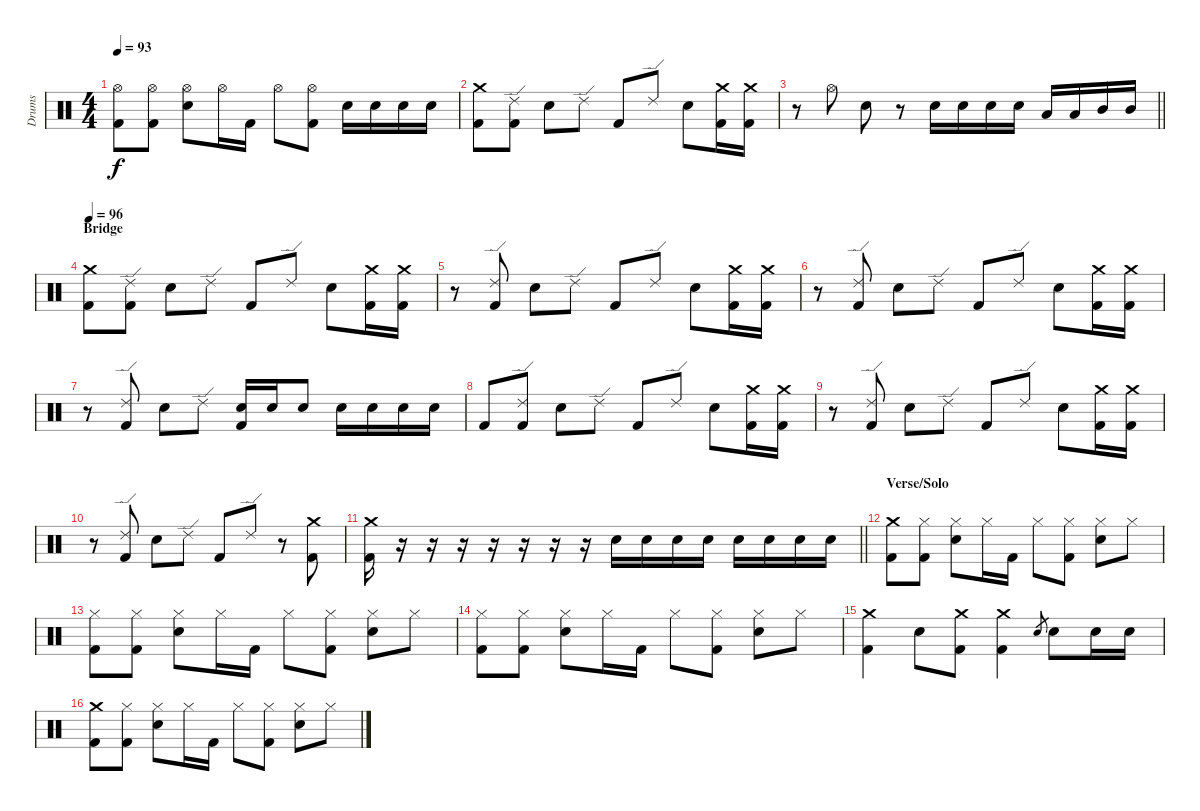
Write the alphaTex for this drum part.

\track ("Drums" "Drums") {instrument percussion}
\staff {score}
\articulation defaults
\ts (4 4)
\tempo 93
\clef neutral
\ks c
("Hi-Hat (open)" "Kick (hit) 2").8{dy f} ("Hi-Hat (open)" "Kick (hit) 2").8 ("Hi-Hat (open)" "Snare (hit) 2").8 "Hi-Hat (open)".16 "Kick (hit) 2".16 "Hi-Hat (open)".8 ("Hi-Hat (open)" "Kick (hit) 2").8 "Snare (hit) 2".16 "Snare (hit) 2".16 "Snare (hit) 2".16 "Snare (hit) 2".16 |
("Crash medium (hit)" "Kick (hit) 2").8 ("Ride (edge) 2" "Kick (hit) 2").8 "Snare (hit) 2".8 "Ride (edge) 2".8 "Kick (hit) 2".8 "Ride (edge) 2".8 "Snare (hit) 2".8 ("Crash medium (hit)" "Kick (hit) 2").16 ("Crash medium (hit)" "Kick (hit) 2").16 |
\barLineRight lightlight
r.8 "Hi-Hat (open)".8 "Snare (hit) 2".8 r.8 "Snare (hit) 2".16 "Snare (hit) 2".16 "Snare (hit) 2".16 "Snare (hit) 2".16 "Low Tom (hit)".16 "Low Tom (hit)".16 "Mid Tom (hit)".16 "Mid Tom (hit)".16 |
\section ("" "Bridge")
\tempo 96
("Crash medium (hit)" "Kick (hit) 2").8 ("Ride (edge) 2" "Kick (hit) 2").8 "Snare (hit) 2".8 "Ride (edge) 2".8 "Kick (hit) 2".8 "Ride (edge) 2".8 "Snare (hit) 2".8 ("Crash medium (hit)" "Kick (hit) 2").16 ("Crash medium (hit)" "Kick (hit) 2").16 |
r.8 ("Ride (edge) 2" "Kick (hit) 2").8 "Snare (hit) 2".8 "Ride (edge) 2".8 "Kick (hit) 2".8 "Ride (edge) 2".8 "Snare (hit) 2".8 ("Crash medium (hit)" "Kick (hit) 2").16 ("Crash medium (hit)" "Kick (hit) 2").16 |
r.8 ("Ride (edge) 2" "Kick (hit) 2").8 "Snare (hit) 2".8 "Ride (edge) 2".8 "Kick (hit) 2".8 "Ride (edge) 2".8 "Snare (hit) 2".8 ("Crash medium (hit)" "Kick (hit) 2").16 ("Crash medium (hit)" "Kick (hit) 2").16 |
r.8 ("Ride (edge) 2" "Kick (hit) 2").8 "Snare (hit) 2".8 "Ride (edge) 2".8 ("Snare (hit) 2" "Kick (hit) 2").16 "Snare (hit) 2".16 "Snare (hit) 2".8 "Snare (hit) 2".16 "Snare (hit) 2".16 "Snare (hit) 2".16 "Snare (hit) 2".16 |
"Kick (hit) 2".8 ("Ride (edge) 2" "Kick (hit) 2").8 "Snare (hit) 2".8 "Ride (edge) 2".8 "Kick (hit) 2".8 "Ride (edge) 2".8 "Snare (hit) 2".8 ("Crash medium (hit)" "Kick (hit) 2").16 ("Crash medium (hit)" "Kick (hit) 2").16 |
r.8 ("Ride (edge) 2" "Kick (hit) 2").8 "Snare (hit) 2".8 "Ride (edge) 2".8 "Kick (hit) 2".8 "Ride (edge) 2".8 "Snare (hit) 2".8 ("Crash medium (hit)" "Kick (hit) 2").16 ("Crash medium (hit)" "Kick (hit) 2").16 |
r.8 ("Ride (edge) 2" "Kick (hit) 2").8 "Snare (hit) 2".8 "Ride (edge) 2".8 "Kick (hit) 2".8 "Ride (edge) 2".8 r.8 ("Crash medium (hit)" "Kick (hit) 2").8 |
\barLineRight lightlight
("Crash medium (hit)" "Kick (hit) 2").16 r.16 r.16 r.16 r.16 r.16 r.16 r.16 "Snare (hit) 2".16 "Snare (hit) 2".16 "Snare (hit) 2".16 "Snare (hit) 2".16 "Snare (hit) 2".16 "Snare (hit) 2".16 "Snare (hit) 2".16 "Snare (hit) 2".16 |
\section ("" "Verse/Solo")
("Crash medium (hit)" "Kick (hit) 2").8 ("Hi-Hat (closed)" "Kick (hit) 2").8 ("Hi-Hat (closed)" "Snare (hit) 2").8 "Hi-Hat (closed)".16 "Kick (hit) 2".16 "Hi-Hat (closed)".8 ("Hi-Hat (closed)" "Kick (hit) 2").8 ("Hi-Hat (closed)" "Snare (hit) 2").8 "Hi-Hat (closed)".8 |
("Hi-Hat (closed)" "Kick (hit) 2").8 ("Hi-Hat (closed)" "Kick (hit) 2").8 ("Hi-Hat (closed)" "Snare (hit) 2").8 "Hi-Hat (closed)".16 "Kick (hit) 2".16 "Hi-Hat (closed)".8 ("Hi-Hat (closed)" "Kick (hit) 2").8 ("Hi-Hat (closed)" "Snare (hit) 2").8 "Hi-Hat (closed)".8 |
("Hi-Hat (closed)" "Kick (hit) 2").8 ("Hi-Hat (closed)" "Kick (hit) 2").8 ("Hi-Hat (closed)" "Snare (hit) 2").8 "Hi-Hat (closed)".16 "Kick (hit) 2".16 "Hi-Hat (closed)".8 ("Hi-Hat (closed)" "Kick (hit) 2").8 ("Hi-Hat (closed)" "Snare (hit) 2").8 "Hi-Hat (closed)".8 |
("Crash medium (hit)" "Kick (hit) 2").4 "Snare (hit) 2".8 ("Crash medium (hit)" "Kick (hit) 2").8 ("Crash medium (hit)" "Kick (hit) 2").4 "Snare (hit) 2".8{gr} "Snare (hit) 2".8 "Snare (hit) 2".16 "Snare (hit) 2".16 |
("Crash medium (hit)" "Kick (hit) 2").8 ("Hi-Hat (closed)" "Kick (hit) 2").8 ("Hi-Hat (closed)" "Snare (hit) 2").8 "Hi-Hat (closed)".16 "Kick (hit) 2".16 "Hi-Hat (closed)".8 ("Hi-Hat (closed)" "Kick (hit) 2").8 ("Hi-Hat (closed)" "Snare (hit) 2").8 "Hi-Hat (closed)".8
